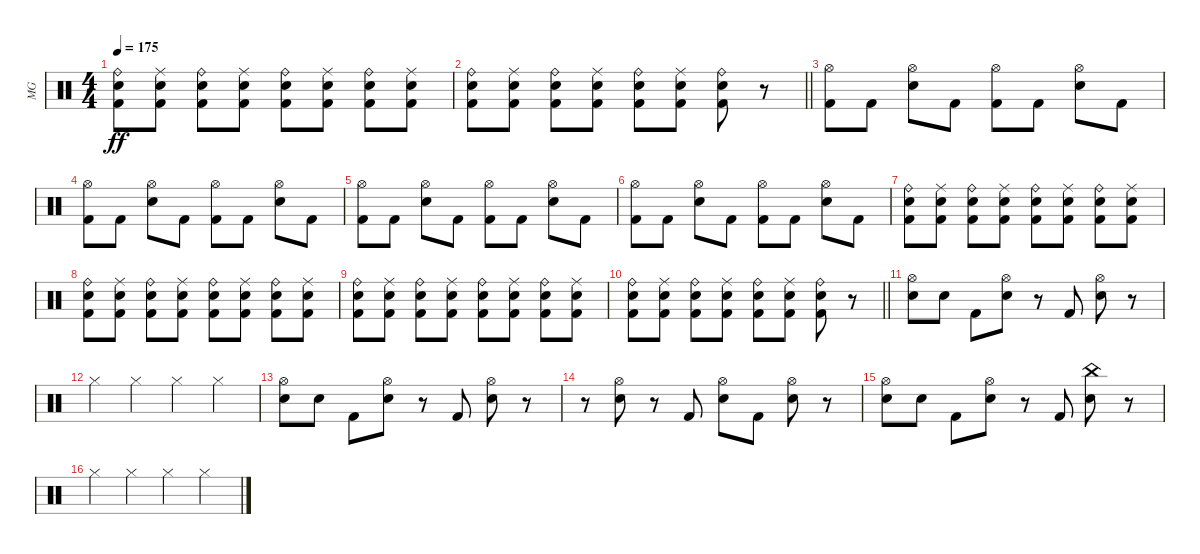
\track ("MG" "MG") {instrument percussion}
\staff {score}
\articulation defaults
\ts (4 4)
\tempo 175
\clef neutral
\ks c
("Ride (bell)" "Electric Snare (hit)" "Kick (hit) 2").8{dy ff} ("Ride (middle)" "Electric Snare (hit)" "Kick (hit) 2").8 ("Ride (bell)" "Electric Snare (hit)" "Kick (hit) 2").8 ("Ride (middle)" "Electric Snare (hit)" "Kick (hit) 2").8 ("Ride (bell)" "Electric Snare (hit)" "Kick (hit) 2").8 ("Ride (middle)" "Electric Snare (hit)" "Kick (hit) 2").8 ("Ride (bell)" "Electric Snare (hit)" "Kick (hit) 2").8 ("Ride (middle)" "Electric Snare (hit)" "Kick (hit) 2").8 |
\barLineRight lightlight
("Ride (bell)" "Electric Snare (hit)" "Kick (hit) 2").8 ("Ride (middle)" "Electric Snare (hit)" "Kick (hit) 2").8 ("Ride (bell)" "Electric Snare (hit)" "Kick (hit) 2").8 ("Ride (middle)" "Electric Snare (hit)" "Kick (hit) 2").8 ("Ride (bell)" "Electric Snare (hit)" "Kick (hit) 2").8 ("Ride (middle)" "Electric Snare (hit)" "Kick (hit) 2").8 ("Ride (bell)" "Electric Snare (hit)" "Kick (hit) 2").8 r.8 |
\section ("" "")
("Hi-Hat (open)" "Kick (hit) 2").8 "Kick (hit) 2".8 ("Hi-Hat (open)" "Electric Snare (hit)").8 "Kick (hit) 2".8 ("Hi-Hat (open)" "Kick (hit) 2").8 "Kick (hit) 2".8 ("Hi-Hat (open)" "Electric Snare (hit)").8 "Kick (hit) 2".8 |
("Hi-Hat (open)" "Kick (hit) 2").8 "Kick (hit) 2".8 ("Hi-Hat (open)" "Electric Snare (hit)").8 "Kick (hit) 2".8 ("Hi-Hat (open)" "Kick (hit) 2").8 "Kick (hit) 2".8 ("Hi-Hat (open)" "Electric Snare (hit)").8 "Kick (hit) 2".8 |
("Hi-Hat (open)" "Kick (hit) 2").8 "Kick (hit) 2".8 ("Hi-Hat (open)" "Electric Snare (hit)").8 "Kick (hit) 2".8 ("Hi-Hat (open)" "Kick (hit) 2").8 "Kick (hit) 2".8 ("Hi-Hat (open)" "Electric Snare (hit)").8 "Kick (hit) 2".8 |
("Hi-Hat (open)" "Kick (hit) 2").8 "Kick (hit) 2".8 ("Hi-Hat (open)" "Electric Snare (hit)").8 "Kick (hit) 2".8 ("Hi-Hat (open)" "Kick (hit) 2").8 "Kick (hit) 2".8 ("Hi-Hat (open)" "Electric Snare (hit)").8 "Kick (hit) 2".8 |
("Ride (bell)" "Electric Snare (hit)" "Kick (hit) 2").8 ("Ride (middle)" "Electric Snare (hit)" "Kick (hit) 2").8 ("Ride (bell)" "Electric Snare (hit)" "Kick (hit) 2").8 ("Ride (middle)" "Electric Snare (hit)" "Kick (hit) 2").8 ("Ride (bell)" "Electric Snare (hit)" "Kick (hit) 2").8 ("Ride (middle)" "Electric Snare (hit)" "Kick (hit) 2").8 ("Ride (bell)" "Electric Snare (hit)" "Kick (hit) 2").8 ("Ride (middle)" "Electric Snare (hit)" "Kick (hit) 2").8 |
("Ride (bell)" "Electric Snare (hit)" "Kick (hit) 2").8 ("Ride (middle)" "Electric Snare (hit)" "Kick (hit) 2").8 ("Ride (bell)" "Electric Snare (hit)" "Kick (hit) 2").8 ("Ride (middle)" "Electric Snare (hit)" "Kick (hit) 2").8 ("Ride (bell)" "Electric Snare (hit)" "Kick (hit) 2").8 ("Ride (middle)" "Electric Snare (hit)" "Kick (hit) 2").8 ("Ride (bell)" "Electric Snare (hit)" "Kick (hit) 2").8 ("Ride (middle)" "Electric Snare (hit)" "Kick (hit) 2").8 |
("Ride (bell)" "Electric Snare (hit)" "Kick (hit) 2").8 ("Ride (middle)" "Electric Snare (hit)" "Kick (hit) 2").8 ("Ride (bell)" "Electric Snare (hit)" "Kick (hit) 2").8 ("Ride (middle)" "Electric Snare (hit)" "Kick (hit) 2").8 ("Ride (bell)" "Electric Snare (hit)" "Kick (hit) 2").8 ("Ride (middle)" "Electric Snare (hit)" "Kick (hit) 2").8 ("Ride (bell)" "Electric Snare (hit)" "Kick (hit) 2").8 ("Ride (middle)" "Electric Snare (hit)" "Kick (hit) 2").8 |
\barLineRight lightlight
("Ride (bell)" "Electric Snare (hit)" "Kick (hit) 2").8 ("Ride (middle)" "Electric Snare (hit)" "Kick (hit) 2").8 ("Ride (bell)" "Electric Snare (hit)" "Kick (hit) 2").8 ("Ride (middle)" "Electric Snare (hit)" "Kick (hit) 2").8 ("Ride (bell)" "Electric Snare (hit)" "Kick (hit) 2").8 ("Ride (middle)" "Electric Snare (hit)" "Kick (hit) 2").8 ("Ride (bell)" "Electric Snare (hit)" "Kick (hit) 2").8 r.8 |
\section ("" "")
("Hi-Hat (open)" "Electric Snare (hit)").8 "Electric Snare (hit)".8 "Kick (hit) 2".8 ("Hi-Hat (open)" "Electric Snare (hit)").8 r.8 "Kick (hit) 2".8 ("Hi-Hat (open)" "Electric Snare (hit)").8 r.8 |
"Hi-Hat (closed)".4 "Hi-Hat (closed)".4 "Hi-Hat (closed)".4 "Hi-Hat (closed)".4 |
("Hi-Hat (open)" "Electric Snare (hit)").8 "Electric Snare (hit)".8 "Kick (hit) 2".8 ("Hi-Hat (open)" "Electric Snare (hit)").8 r.8 "Kick (hit) 2".8 ("Hi-Hat (open)" "Electric Snare (hit)").8 r.8 |
r.8 ("Hi-Hat (open)" "Electric Snare (hit)").8 r.8 "Kick (hit) 2".8 ("Hi-Hat (open)" "Electric Snare (hit)").8 "Kick (hit) 2".8 ("Hi-Hat (open)" "Electric Snare (hit)").8 r.8 |
("Hi-Hat (open)" "Electric Snare (hit)").8 "Electric Snare (hit)".8 "Kick (hit) 2".8 ("Hi-Hat (open)" "Electric Snare (hit)").8 r.8 "Kick (hit) 2".8 ("China (hit)" "Electric Snare (hit)").8 r.8 |
"Hi-Hat (closed)".4 "Hi-Hat (closed)".4 "Hi-Hat (closed)".4 "Hi-Hat (closed)".4
